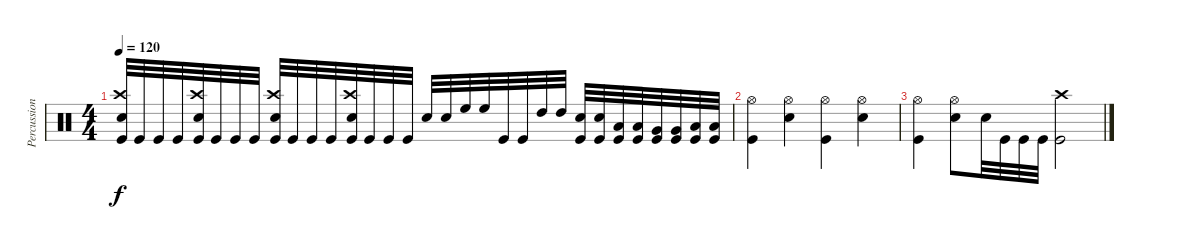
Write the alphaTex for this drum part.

\track ("Percussion" "Percussion") {instrument percussion}
\staff {score}
\articulation defaults
\ts (4 4)
\tempo 120
\clef neutral
\ks c
("Kick (hit)" "Crash high (hit)" "Snare (hit) 2").32{dy f} "Kick (hit)".32 "Kick (hit)".32 "Kick (hit)".32 ("Kick (hit)" "Crash high (hit)" "Snare (hit) 2").32 "Kick (hit)".32 "Kick (hit)".32 "Kick (hit)".32 ("Kick (hit)" "Crash high (hit)" "Snare (hit) 2").32 "Kick (hit)".32 "Kick (hit)".32 "Kick (hit)".32 ("Kick (hit)" "Crash high (hit)" "Snare (hit) 2").32 "Kick (hit)".32 "Kick (hit)".32 "Kick (hit)".32 "Snare (hit) 2".32 "Snare (hit) 2".32 "High Floor Tom (hit)".32 "High Floor Tom (hit)".32 "Kick (hit)".32 "Kick (hit)".32 "High Tom (hit)".32 "High Tom (hit)".32 ("Kick (hit)" "Snare (hit) 2").32 ("Snare (hit) 2" "Kick (hit)").32 ("Low Tom (hit)" "Kick (hit)").32 ("Low Tom (hit)" "Kick (hit)").32 ("Kick (hit)" "Very Low Tom (hit)").32 ("Very Low Tom (hit)" "Kick (hit)").32 ("Low Floor Tom (hit)" "Kick (hit)").32 ("Low Floor Tom (hit)" "Kick (hit)").32 |
("Hi-Hat (open)" "Kick (hit)").4 ("Hi-Hat (open)" "Snare (hit) 2").4 ("Hi-Hat (open)" "Kick (hit)").4 ("Hi-Hat (open)" "Snare (hit) 2").4 |
("Hi-Hat (open)" "Kick (hit)").4 ("Hi-Hat (open)" "Snare (hit) 2").8 "Snare (hit) 2".32 "Kick (hit)".32 "Kick (hit)".32 "Kick (hit)".32 ("Kick (hit)" "Crash high (hit)").2
